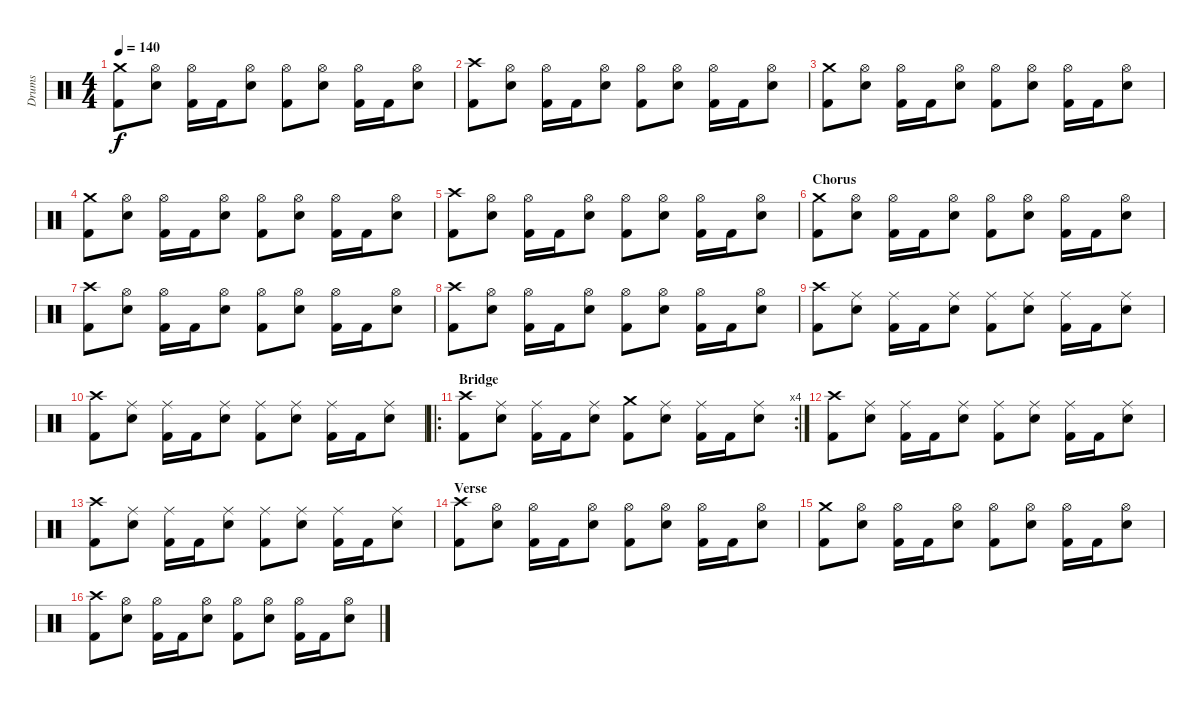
\track ("Drums" "Drums") {instrument percussion}
\staff {score}
\articulation defaults
\ts (4 4)
\tempo 140
\clef neutral
\ks c
("Crash medium (hit)" "Kick (hit) 2").8{dy f} ("Hi-Hat (open)" "Electric Snare (hit)").8 ("Hi-Hat (open)" "Kick (hit) 2").16 "Kick (hit) 2".16 ("Hi-Hat (open)" "Electric Snare (hit)").8 ("Hi-Hat (open)" "Kick (hit) 2").8 ("Hi-Hat (open)" "Electric Snare (hit)").8 ("Hi-Hat (open)" "Kick (hit) 2").16 "Kick (hit) 2".16 ("Hi-Hat (open)" "Electric Snare (hit)").8 |
("Crash high (hit)" "Kick (hit) 2").8 ("Hi-Hat (open)" "Electric Snare (hit)").8 ("Hi-Hat (open)" "Kick (hit) 2").16 "Kick (hit) 2".16 ("Hi-Hat (open)" "Electric Snare (hit)").8 ("Hi-Hat (open)" "Kick (hit) 2").8 ("Hi-Hat (open)" "Electric Snare (hit)").8 ("Hi-Hat (open)" "Kick (hit) 2").16 "Kick (hit) 2".16 ("Hi-Hat (open)" "Electric Snare (hit)").8 |
("Crash medium (hit)" "Kick (hit) 2").8 ("Hi-Hat (open)" "Electric Snare (hit)").8 ("Hi-Hat (open)" "Kick (hit) 2").16 "Kick (hit) 2".16 ("Hi-Hat (open)" "Electric Snare (hit)").8 ("Hi-Hat (open)" "Kick (hit) 2").8 ("Hi-Hat (open)" "Electric Snare (hit)").8 ("Hi-Hat (open)" "Kick (hit) 2").16 "Kick (hit) 2".16 ("Hi-Hat (open)" "Electric Snare (hit)").8 |
("Crash medium (hit)" "Kick (hit) 2").8 ("Hi-Hat (open)" "Electric Snare (hit)").8 ("Hi-Hat (open)" "Kick (hit) 2").16 "Kick (hit) 2".16 ("Hi-Hat (open)" "Electric Snare (hit)").8 ("Hi-Hat (open)" "Kick (hit) 2").8 ("Hi-Hat (open)" "Electric Snare (hit)").8 ("Hi-Hat (open)" "Kick (hit) 2").16 "Kick (hit) 2".16 ("Hi-Hat (open)" "Electric Snare (hit)").8 |
("Crash high (hit)" "Kick (hit) 2").8 ("Hi-Hat (open)" "Electric Snare (hit)").8 ("Hi-Hat (open)" "Kick (hit) 2").16 "Kick (hit) 2".16 ("Hi-Hat (open)" "Electric Snare (hit)").8 ("Hi-Hat (open)" "Kick (hit) 2").8 ("Hi-Hat (open)" "Electric Snare (hit)").8 ("Hi-Hat (open)" "Kick (hit) 2").16 "Kick (hit) 2".16 ("Hi-Hat (open)" "Electric Snare (hit)").8 |
\section ("" "Chorus")
("Crash medium (hit)" "Kick (hit) 2").8 ("Hi-Hat (open)" "Electric Snare (hit)").8 ("Hi-Hat (open)" "Kick (hit) 2").16 "Kick (hit) 2".16 ("Hi-Hat (open)" "Electric Snare (hit)").8 ("Hi-Hat (open)" "Kick (hit) 2").8 ("Hi-Hat (open)" "Electric Snare (hit)").8 ("Hi-Hat (open)" "Kick (hit) 2").16 "Kick (hit) 2".16 ("Hi-Hat (open)" "Electric Snare (hit)").8 |
("Crash high (hit)" "Kick (hit) 2").8 ("Hi-Hat (open)" "Electric Snare (hit)").8 ("Hi-Hat (open)" "Kick (hit) 2").16 "Kick (hit) 2".16 ("Hi-Hat (open)" "Electric Snare (hit)").8 ("Hi-Hat (open)" "Kick (hit) 2").8 ("Hi-Hat (open)" "Electric Snare (hit)").8 ("Hi-Hat (open)" "Kick (hit) 2").16 "Kick (hit) 2".16 ("Hi-Hat (open)" "Electric Snare (hit)").8 |
("Crash high (hit)" "Kick (hit) 2").8 ("Hi-Hat (open)" "Electric Snare (hit)").8 ("Hi-Hat (open)" "Kick (hit) 2").16 "Kick (hit) 2".16 ("Hi-Hat (open)" "Electric Snare (hit)").8 ("Hi-Hat (open)" "Kick (hit) 2").8 ("Hi-Hat (open)" "Electric Snare (hit)").8 ("Hi-Hat (open)" "Kick (hit) 2").16 "Kick (hit) 2".16 ("Hi-Hat (open)" "Electric Snare (hit)").8 |
("Crash high (hit)" "Kick (hit) 2").8 ("Ride (middle)" "Electric Snare (hit)").8 ("Ride (middle)" "Kick (hit) 2").16 "Kick (hit) 2".16 ("Ride (middle)" "Electric Snare (hit)").8 ("Ride (middle)" "Kick (hit) 2").8 ("Ride (middle)" "Electric Snare (hit)").8 ("Ride (middle)" "Kick (hit) 2").16 "Kick (hit) 2".16 ("Ride (middle)" "Electric Snare (hit)").8 |
("Crash high (hit)" "Kick (hit) 2").8 ("Ride (middle)" "Electric Snare (hit)").8 ("Ride (middle)" "Kick (hit) 2").16 "Kick (hit) 2".16 ("Ride (middle)" "Electric Snare (hit)").8 ("Ride (middle)" "Kick (hit) 2").8 ("Ride (middle)" "Electric Snare (hit)").8 ("Ride (middle)" "Kick (hit) 2").16 "Kick (hit) 2".16 ("Ride (middle)" "Electric Snare (hit)").8 |
\ro
\rc 4
\section ("" "Bridge")
("Crash high (hit)" "Kick (hit) 2").8 ("Ride (middle)" "Electric Snare (hit)").8 ("Ride (middle)" "Kick (hit) 2").16 "Kick (hit) 2".16 ("Ride (middle)" "Electric Snare (hit)").8 ("Crash medium (hit)" "Kick (hit) 2").8 ("Ride (middle)" "Electric Snare (hit)").8 ("Ride (middle)" "Kick (hit) 2").16 "Kick (hit) 2".16 ("Ride (middle)" "Electric Snare (hit)").8 |
("Crash high (hit)" "Kick (hit) 2").8 ("Ride (middle)" "Electric Snare (hit)").8 ("Ride (middle)" "Kick (hit) 2").16 "Kick (hit) 2".16 ("Ride (middle)" "Electric Snare (hit)").8 ("Ride (middle)" "Kick (hit) 2").8 ("Ride (middle)" "Electric Snare (hit)").8 ("Ride (middle)" "Kick (hit) 2").16 "Kick (hit) 2".16 ("Ride (middle)" "Electric Snare (hit)").8 |
("Crash high (hit)" "Kick (hit) 2").8 ("Ride (middle)" "Electric Snare (hit)").8 ("Ride (middle)" "Kick (hit) 2").16 "Kick (hit) 2".16 ("Ride (middle)" "Electric Snare (hit)").8 ("Ride (middle)" "Kick (hit) 2").8 ("Ride (middle)" "Electric Snare (hit)").8 ("Ride (middle)" "Kick (hit) 2").16 "Kick (hit) 2".16 ("Ride (middle)" "Electric Snare (hit)").8 |
\section ("" "Verse")
("Crash high (hit)" "Kick (hit) 2").8 ("Hi-Hat (open)" "Electric Snare (hit)").8 ("Hi-Hat (open)" "Kick (hit) 2").16 "Kick (hit) 2".16 ("Hi-Hat (open)" "Electric Snare (hit)").8 ("Hi-Hat (open)" "Kick (hit) 2").8 ("Hi-Hat (open)" "Electric Snare (hit)").8 ("Hi-Hat (open)" "Kick (hit) 2").16 "Kick (hit) 2".16 ("Hi-Hat (open)" "Electric Snare (hit)").8 |
("Crash medium (hit)" "Kick (hit) 2").8 ("Hi-Hat (open)" "Electric Snare (hit)").8 ("Hi-Hat (open)" "Kick (hit) 2").16 "Kick (hit) 2".16 ("Hi-Hat (open)" "Electric Snare (hit)").8 ("Hi-Hat (open)" "Kick (hit) 2").8 ("Hi-Hat (open)" "Electric Snare (hit)").8 ("Hi-Hat (open)" "Kick (hit) 2").16 "Kick (hit) 2".16 ("Hi-Hat (open)" "Electric Snare (hit)").8 |
("Crash high (hit)" "Kick (hit) 2").8 ("Hi-Hat (open)" "Electric Snare (hit)").8 ("Hi-Hat (open)" "Kick (hit) 2").16 "Kick (hit) 2".16 ("Hi-Hat (open)" "Electric Snare (hit)").8 ("Hi-Hat (open)" "Kick (hit) 2").8 ("Hi-Hat (open)" "Electric Snare (hit)").8 ("Hi-Hat (open)" "Kick (hit) 2").16 "Kick (hit) 2".16 ("Hi-Hat (open)" "Electric Snare (hit)").8
